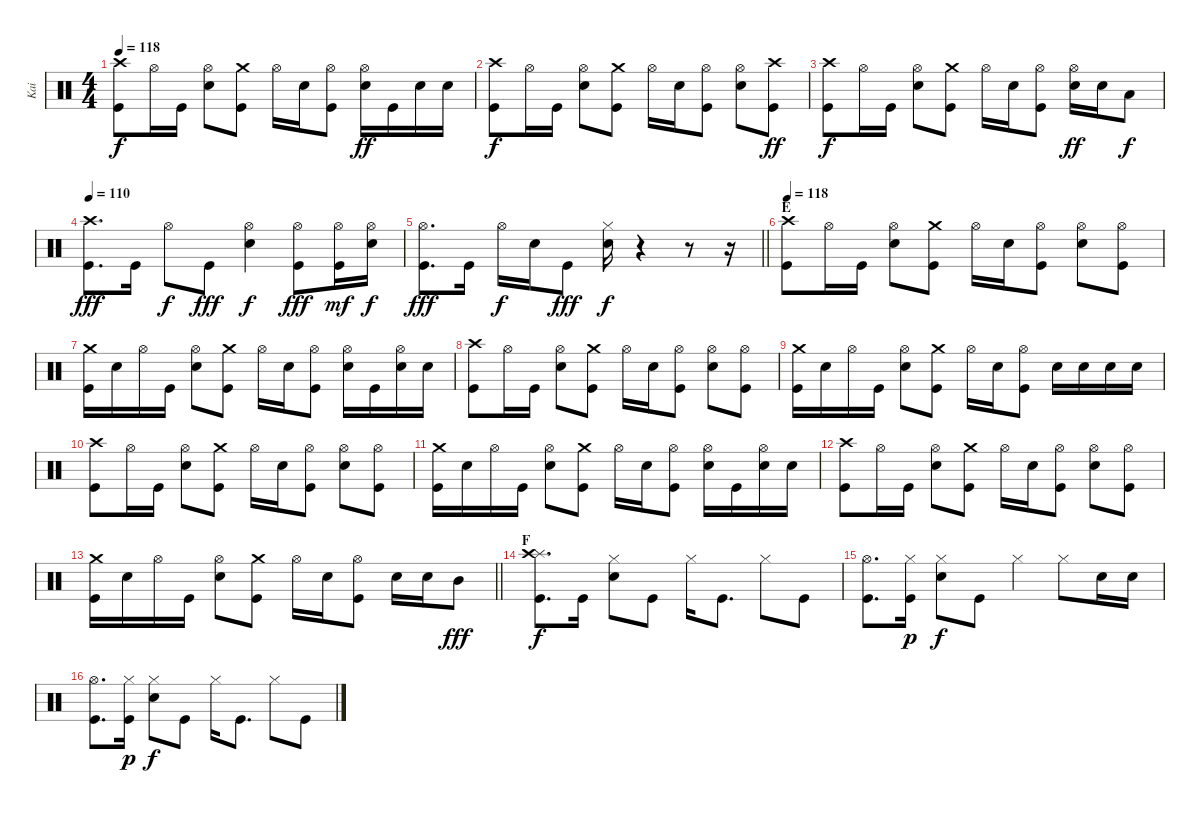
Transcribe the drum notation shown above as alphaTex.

\track ("Kai" "Kai") {instrument percussion}
\staff {score}
\articulation defaults
\ts (4 4)
\tempo 118
\clef neutral
\ks c
("Kick (hit)" "Crash high (hit)").8{dy f} "Hi-Hat (open)".16 "Kick (hit)".16 ("Hi-Hat (open)" "Snare (hit) 2").8 ("Crash medium (hit)" "Kick (hit)").8 "Hi-Hat (open)".16 "Snare (hit) 2".16 ("Kick (hit)" "Hi-Hat (open)").8 ("Hi-Hat (open)" "Snare (hit) 2").16{dy ff} "Kick (hit)".16 "Snare (hit) 2".16 "Snare (hit) 2".16 |
("Kick (hit)" "Crash high (hit)").8{dy f} "Hi-Hat (open)".16 "Kick (hit)".16 ("Hi-Hat (open)" "Snare (hit) 2").8 ("Crash medium (hit)" "Kick (hit)").8 "Hi-Hat (open)".16 "Snare (hit) 2".16 ("Kick (hit)" "Hi-Hat (open)").8 ("Hi-Hat (open)" "Snare (hit) 2").8 ("Kick (hit)" "Crash high (hit)").8{dy ff} |
("Kick (hit)" "Crash high (hit)").8{dy f} "Hi-Hat (open)".16 "Kick (hit)".16 ("Hi-Hat (open)" "Snare (hit) 2").8 ("Crash medium (hit)" "Kick (hit)").8 "Hi-Hat (open)".16 "Snare (hit) 2".16 ("Kick (hit)" "Hi-Hat (open)").8 ("Hi-Hat (open)" "Snare (hit) 2").16{dy ff} "Snare (hit) 2".16 "Low Tom (hit)".8{dy f} |
\tempo 110
("Kick (hit)" "Crash high (hit)").8{d dy fff} "Kick (hit)".16 "Hi-Hat (open)".8{dy f} "Kick (hit)".8{dy fff} ("Snare (hit) 2" "Hi-Hat (open)").4{dy f} ("Kick (hit)" "Hi-Hat (open)").8{dy fff} ("Kick (hit)" "Hi-Hat (open)").16{dy mf} ("Snare (hit) 2" "Hi-Hat (open)").16{dy f} |
\barLineRight lightlight
("Kick (hit)" "Hi-Hat (open)").8{d dy fff} "Kick (hit)".16 "Hi-Hat (open)".16{dy f} "Snare (hit) 2".16 "Kick (hit)".8{dy fff} ("Snare (hit) 2" "Hi-Hat (closed)").16{dy f} r.4 r.8 r.16 |
\section ("" "E")
\tempo 118
("Kick (hit)" "Crash high (hit)").8 "Hi-Hat (open)".16 "Kick (hit)".16 ("Hi-Hat (open)" "Snare (hit) 2").8 ("Crash medium (hit)" "Kick (hit)").8 "Hi-Hat (open)".16 "Snare (hit) 2".16 ("Kick (hit)" "Hi-Hat (open)").8 ("Hi-Hat (open)" "Snare (hit) 2").8 ("Kick (hit)" "Hi-Hat (open)").8 |
("Kick (hit)" "Crash medium (hit)").16 "Snare (hit) 2".16 "Hi-Hat (open)".16 "Kick (hit)".16 ("Snare (hit) 2" "Hi-Hat (open)").8 ("Kick (hit)" "Crash medium (hit)").8 "Hi-Hat (open)".16 "Snare (hit) 2".16 ("Kick (hit)" "Hi-Hat (open)").8 ("Snare (hit) 2" "Hi-Hat (open)").16 "Kick (hit)".16 ("Snare (hit) 2" "Hi-Hat (open)").16 "Snare (hit) 2".16 |
("Kick (hit)" "Crash high (hit)").8 "Hi-Hat (open)".16 "Kick (hit)".16 ("Hi-Hat (open)" "Snare (hit) 2").8 ("Crash medium (hit)" "Kick (hit)").8 "Hi-Hat (open)".16 "Snare (hit) 2".16 ("Kick (hit)" "Hi-Hat (open)").8 ("Hi-Hat (open)" "Snare (hit) 2").8 ("Kick (hit)" "Hi-Hat (open)").8 |
("Kick (hit)" "Crash medium (hit)").16 "Snare (hit) 2".16 "Hi-Hat (open)".16 "Kick (hit)".16 ("Snare (hit) 2" "Hi-Hat (open)").8 ("Kick (hit)" "Crash medium (hit)").8 "Hi-Hat (open)".16 "Snare (hit) 2".16 ("Kick (hit)" "Hi-Hat (open)").8 "Snare (hit) 2".16 "Snare (hit) 2".16 "Snare (hit) 2".16 "Snare (hit) 2".16 |
("Kick (hit)" "Crash high (hit)").8 "Hi-Hat (open)".16 "Kick (hit)".16 ("Hi-Hat (open)" "Snare (hit) 2").8 ("Crash medium (hit)" "Kick (hit)").8 "Hi-Hat (open)".16 "Snare (hit) 2".16 ("Kick (hit)" "Hi-Hat (open)").8 ("Hi-Hat (open)" "Snare (hit) 2").8 ("Kick (hit)" "Hi-Hat (open)").8 |
("Kick (hit)" "Crash medium (hit)").16 "Snare (hit) 2".16 "Hi-Hat (open)".16 "Kick (hit)".16 ("Snare (hit) 2" "Hi-Hat (open)").8 ("Kick (hit)" "Crash medium (hit)").8 "Hi-Hat (open)".16 "Snare (hit) 2".16 ("Kick (hit)" "Hi-Hat (open)").8 ("Snare (hit) 2" "Hi-Hat (open)").16 "Kick (hit)".16 ("Snare (hit) 2" "Hi-Hat (open)").16 "Snare (hit) 2".16 |
("Kick (hit)" "Crash high (hit)").8 "Hi-Hat (open)".16 "Kick (hit)".16 ("Hi-Hat (open)" "Snare (hit) 2").8 ("Crash medium (hit)" "Kick (hit)").8 "Hi-Hat (open)".16 "Snare (hit) 2".16 ("Kick (hit)" "Hi-Hat (open)").8 ("Hi-Hat (open)" "Snare (hit) 2").8 ("Kick (hit)" "Hi-Hat (open)").8 |
\barLineRight lightlight
("Kick (hit)" "Crash medium (hit)").16 "Snare (hit) 2".16 "Hi-Hat (open)".16 "Kick (hit)".16 ("Snare (hit) 2" "Hi-Hat (open)").8 ("Kick (hit)" "Crash medium (hit)").8 "Hi-Hat (open)".16 "Snare (hit) 2".16 ("Kick (hit)" "Hi-Hat (open)").8 "Snare (hit) 2".16 "Snare (hit) 2".16 "Mid Tom (hit)".8{dy fff} |
\section ("" "F")
("Splash (hit)" "Crash high (hit)" "Kick (hit)").8{d dy f} "Kick (hit)".16 ("Hi-Hat (closed)" "Snare (hit) 2").8 "Kick (hit)".8 "Hi-Hat (closed)".16 "Kick (hit)".8{d} "Hi-Hat (closed)".8 "Kick (hit)".8 |
("Hi-Hat (open)" "Kick (hit)").8{d} ("Kick (hit)" "Hi-Hat (closed)").16{dy p} ("Hi-Hat (closed)" "Snare (hit) 2").8{dy f} "Kick (hit)".8 "Hi-Hat (closed)".4 "Hi-Hat (closed)".8 "Snare (hit) 2".16 "Snare (hit) 2".16 |
("Hi-Hat (open)" "Kick (hit)").8{d} ("Kick (hit)" "Hi-Hat (closed)").16{dy p} ("Hi-Hat (closed)" "Snare (hit) 2").8{dy f} "Kick (hit)".8 "Hi-Hat (closed)".16 "Kick (hit)".8{d} "Hi-Hat (closed)".8 "Kick (hit)".8
